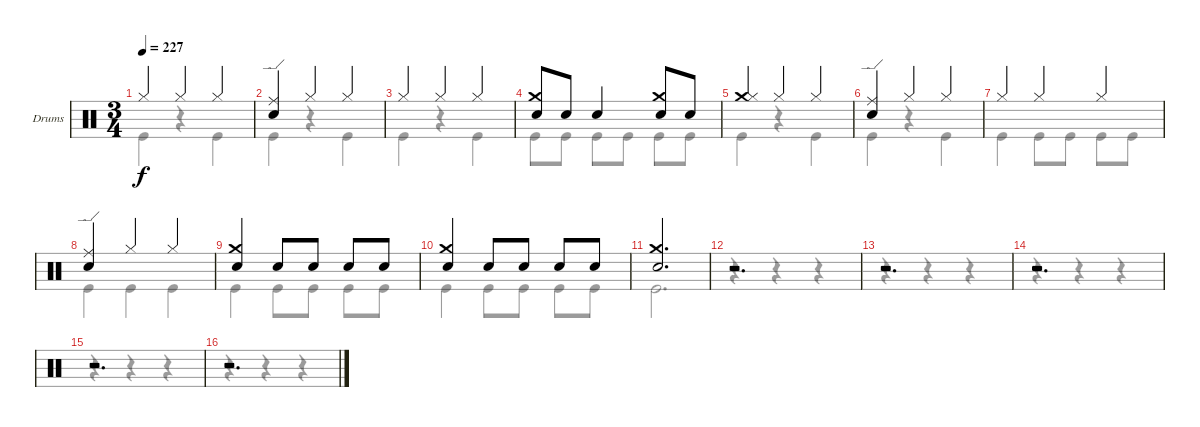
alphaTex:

\bracketExtendMode groupsimilarinstruments
\firstSystemTrackNameOrientation horizontal
\otherSystemsTrackNameOrientation horizontal
\track ("Drumkit" "Drums") {instrument percussion}
\staff {score}
\articulation defaults
\voice
\ts (3 4)
\tempo 227
\clef neutral
\ks c "Hi-Hat (closed)".4{dy f} "Hi-Hat (closed)".4 "Hi-Hat (closed)".4
|
("Ride (edge)" "Snare (hit) 2").4 "Hi-Hat (closed)".4 "Hi-Hat (closed)".4 |
"Hi-Hat (closed)".4 "Hi-Hat (closed)".4 "Hi-Hat (closed)".4 |
("Crash medium (hit)" "Snare (hit) 2").8 "Snare (hit) 2".8 "Snare (hit) 2".4 ("Crash medium (hit)" "Snare (hit) 2").8 "Snare (hit) 2".8 |
("Crash medium (hit)" "Hi-Hat (closed)").4 "Hi-Hat (closed)".4 "Hi-Hat (closed)".4 |
("Ride (edge)" "Snare (hit) 2").4 "Hi-Hat (closed)".4 "Hi-Hat (closed)".4 |
"Hi-Hat (closed)".4 "Hi-Hat (closed)".4 "Hi-Hat (closed)".4 |
("Ride (edge)" "Snare (hit) 2").4 "Hi-Hat (closed)".4 "Hi-Hat (closed)".4 |
("Crash medium (hit)" "Snare (hit) 2").4 "Snare (hit) 2".8 "Snare (hit) 2".8 "Snare (hit) 2".8 "Snare (hit) 2".8 |
("Crash medium (hit)" "Snare (hit) 2").4 "Snare (hit) 2".8 "Snare (hit) 2".8 "Snare (hit) 2".8 "Snare (hit) 2".8 |
("Crash medium (hit)" "Snare (hit) 2").2{d} |
r.2{d} |
r.2{d} |
r.2{d} |
r.2{d} |
r.2{d}
\voice
\clef neutral
\ottava regular
\simile none
\ks c "Kick (hit)".4{dy f}
r.4 "Kick (hit)".4 |
"Kick (hit)".4 r.4 "Kick (hit)".4 |
"Kick (hit)".4 r.4 "Kick (hit)".4 |
"Kick (hit)".8 "Kick (hit)".8 "Kick (hit)".8 "Kick (hit)".8 "Kick (hit)".8 "Kick (hit)".8 |
"Kick (hit)".4 r.4 "Kick (hit)".4 |
"Kick (hit)".4 r.4 "Kick (hit)".4 |
"Kick (hit)".4 "Kick (hit)".8 "Kick (hit)".8 "Kick (hit)".8 "Kick (hit)".8 |
"Kick (hit)".4 "Kick (hit)".4 "Kick (hit)".4 |
"Kick (hit)".4 "Kick (hit)".8 "Kick (hit)".8 "Kick (hit)".8 "Kick (hit)".8 |
"Kick (hit)".4 "Kick (hit)".8 "Kick (hit)".8 "Kick (hit)".8 "Kick (hit)".8 |
"Kick (hit)".2{d} |
r.4 r.4 r.4 |
r.4 r.4 r.4 |
r.4 r.4 r.4 |
r.4 r.4 r.4 |
r.4 r.4 r.4
